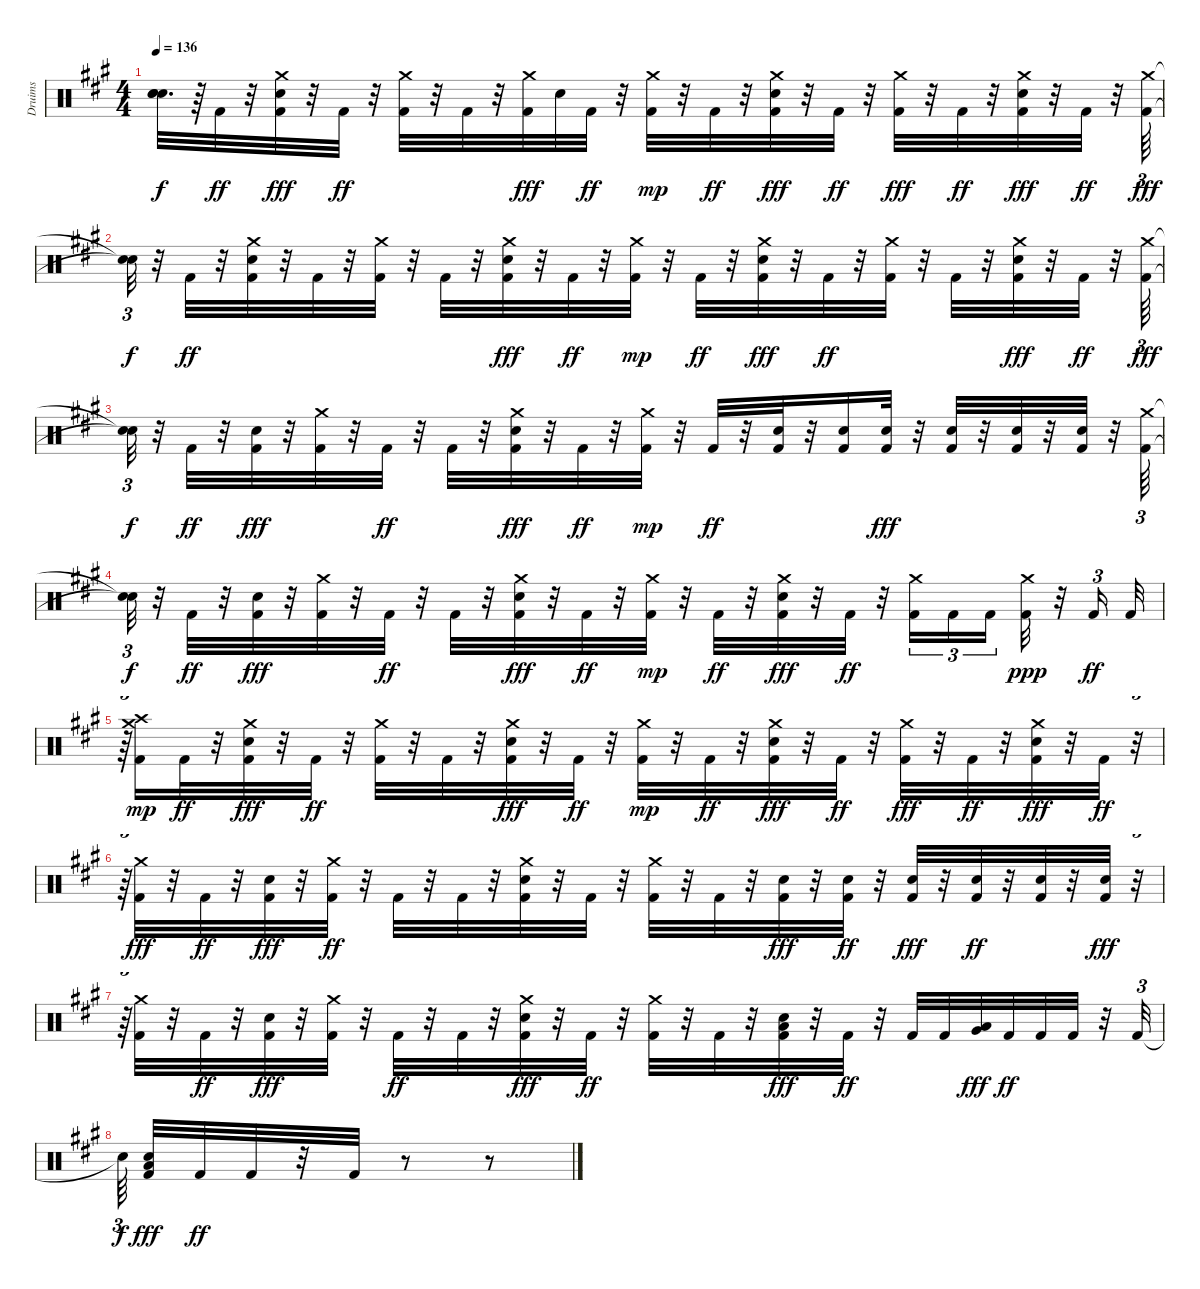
\track ("Druims" "Druims") {instrument percussion}
\staff {score}
\articulation defaults
\ts (4 4)
\tempo 136
\clef neutral
\ks f#minor
("Snare (hit)"{t} "Snare (hit)"{t} "Snare (hit)"{t}).32{d dy f} r.64 "Kick (hit) 2".32{dy ff} r.32 ("Kick (hit) 2" "Crash medium (hit)" "Snare (hit) 2").32{dy fff} r.32 "Kick (hit) 2".32{dy ff} r.32 ("Crash medium (hit)" "Kick (hit) 2").32 r.32 "Kick (hit) 2".32 r.32 ("Kick (hit) 2" "Crash medium (hit)").32{dy fff} "Snare (hit) 2".32 "Kick (hit) 2".32{dy ff} r.32 ("Kick (hit) 2" "Crash medium (hit)").32{dy mp} r.32 "Kick (hit) 2".32{dy ff} r.32 ("Kick (hit) 2" "Crash medium (hit)" "Snare (hit) 2").32{dy fff} r.32 "Kick (hit) 2".32{dy ff} r.32 ("Kick (hit) 2" "Crash medium (hit)").32{dy fff} r.32 "Kick (hit) 2".32{dy ff} r.32 ("Kick (hit) 2" "Crash medium (hit)" "Snare (hit) 2").32{dy fff} r.32 "Kick (hit) 2".32{dy ff} r.32 ("Kick (hit) 2" "Crash medium (hit)").64{tu (3 2) dy fff} |
("Snare (hit)"{t} "Snare (hit)"{t}).32{tu (3 2) dy f} r.32 "Kick (hit) 2".32{dy ff} r.32 ("Kick (hit) 2" "Snare (hit) 2" "Crash medium (hit)").32 r.32 "Kick (hit) 2".32 r.32 ("Crash medium (hit)" "Kick (hit) 2").32 r.32 "Kick (hit) 2".32 r.32 ("Kick (hit) 2" "Crash medium (hit)" "Snare (hit) 2").32{dy fff} r.32 "Kick (hit) 2".32{dy ff} r.32 ("Kick (hit) 2" "Crash medium (hit)").32{dy mp} r.32 "Kick (hit) 2".32{dy ff} r.32 ("Kick (hit) 2" "Snare (hit) 2" "Crash medium (hit)").32{dy fff} r.32 "Kick (hit) 2".32{dy ff} r.32 ("Crash medium (hit)" "Kick (hit) 2").32 r.32 "Kick (hit) 2".32 r.32 ("Crash medium (hit)" "Kick (hit) 2" "Snare (hit) 2").32{dy fff} r.32 "Kick (hit) 2".32{dy ff} r.32 ("Crash medium (hit)" "Kick (hit) 2").64{tu (3 2) dy fff} |
("Snare (hit)"{t} "Snare (hit)"{t}).32{tu (3 2) dy f} r.32 "Kick (hit) 2".32{dy ff} r.32 ("Kick (hit) 2" "Snare (hit) 2").32{dy fff} r.32 ("Kick (hit) 2" "Crash medium (hit)").32 r.32 "Kick (hit) 2".32{dy ff} r.32 "Kick (hit) 2".32 r.32 ("Kick (hit) 2" "Snare (hit) 2" "Crash medium (hit)").32{dy fff} r.32 "Kick (hit) 2".32{dy ff} r.32 ("Kick (hit) 2" "Crash medium (hit)").32{dy mp} r.32 "Kick (hit) 2".32{dy ff} r.32 ("Snare (hit) 2" "Kick (hit) 2").32 r.32 ("Snare (hit) 2" "Kick (hit) 2").16 ("Kick (hit) 2" "Snare (hit) 2").32{dy fff} r.32 ("Kick (hit) 2" "Snare (hit) 2").32 r.32 ("Kick (hit) 2" "Snare (hit) 2").32 r.32 ("Kick (hit) 2" "Snare (hit) 2").32 r.32 ("Kick (hit) 2" "Crash medium (hit)").64{tu (3 2)} |
("Snare (hit)"{t} "Snare (hit)"{t}).32{tu (3 2) dy f} r.32 "Kick (hit) 2".32{dy ff} r.32 ("Kick (hit) 2" "Snare (hit) 2").32{dy fff} r.32 ("Kick (hit) 2" "Crash medium (hit)").32 r.32 "Kick (hit) 2".32{dy ff} r.32 "Kick (hit) 2".32 r.32 ("Kick (hit) 2" "Crash medium (hit)" "Snare (hit) 2").32{dy fff} r.32 "Kick (hit) 2".32{dy ff} r.32 ("Kick (hit) 2" "Crash medium (hit)").32{dy mp} r.32 "Kick (hit) 2".32{dy ff} r.32 ("Kick (hit) 2" "Snare (hit) 2" "Crash medium (hit)").32{dy fff} r.32 "Kick (hit) 2".32{dy ff} r.32 ("Crash medium (hit)" "Kick (hit) 2").16{tu (3 2)} "Kick (hit) 2".16{tu (3 2)} "Kick (hit) 2".16{tu (3 2) beam splitsecondary} ("Kick (hit) 2" "Crash medium (hit)").32{dy ppp} r.32 "Kick (hit) 2".16{tu (3 2) dy ff} "Kick (hit) 2".32 |
r.64{tu (3 2)} ("Kick (hit) 2" "Crash high (hit)" "Crash medium (hit)").16{dy mp} "Kick (hit) 2".32{dy ff} r.32 ("Kick (hit) 2" "Crash medium (hit)" "Snare (hit) 2").32{dy fff} r.32 "Kick (hit) 2".32{dy ff} r.32 ("Crash medium (hit)" "Kick (hit) 2").32 r.32 "Kick (hit) 2".32 r.32 ("Kick (hit) 2" "Crash medium (hit)" "Snare (hit) 2").32{dy fff} r.32 "Kick (hit) 2".32{dy ff} r.32 ("Kick (hit) 2" "Crash medium (hit)").32{dy mp} r.32 "Kick (hit) 2".32{dy ff} r.32 ("Crash medium (hit)" "Kick (hit) 2" "Snare (hit) 2").32{dy fff} r.32 "Kick (hit) 2".32{dy ff} r.32 ("Kick (hit) 2" "Crash medium (hit)").32{dy fff} r.32 "Kick (hit) 2".32{dy ff} r.32 ("Kick (hit) 2" "Crash medium (hit)" "Snare (hit) 2").32{dy fff} r.32 "Kick (hit) 2".32{dy ff} r.32{tu (3 2)} |
r.64{tu (3 2)} ("Kick (hit) 2" "Crash medium (hit)").32{dy fff} r.32 "Kick (hit) 2".32{dy ff} r.32 ("Kick (hit) 2" "Snare (hit) 2").32{dy fff} r.32 ("Crash medium (hit)" "Kick (hit) 2").32{dy ff} r.32 "Kick (hit) 2".32 r.32 "Kick (hit) 2".32 r.32 ("Snare (hit) 2" "Crash medium (hit)" "Kick (hit) 2").32 r.32 "Kick (hit) 2".32 r.32 ("Crash medium (hit)" "Kick (hit) 2").32 r.32 "Kick (hit) 2".32 r.32 ("Kick (hit) 2" "Snare (hit) 2").32{dy fff} r.32 ("Snare (hit) 2" "Kick (hit) 2").32{dy ff} r.32 ("Kick (hit) 2" "Snare (hit) 2").32{dy fff} r.32 ("Snare (hit) 2" "Kick (hit) 2").32{dy ff} r.32 ("Snare (hit) 2" "Kick (hit) 2").32 r.32 ("Kick (hit) 2" "Snare (hit) 2").32{dy fff} r.32{tu (3 2)} |
r.64{tu (3 2)} ("Kick (hit) 2" "Crash medium (hit)").32 r.32 "Kick (hit) 2".32{dy ff} r.32 ("Kick (hit) 2" "Snare (hit) 2").32{dy fff} r.32 ("Kick (hit) 2" "Crash medium (hit)").32 r.32 "Kick (hit) 2".32{dy ff} r.32 "Kick (hit) 2".32 r.32 ("Snare (hit) 2" "Kick (hit) 2" "Crash medium (hit)").32{dy fff} r.32 "Kick (hit) 2".32{dy ff} r.32 ("Crash medium (hit)" "Kick (hit) 2").32 r.32 "Kick (hit) 2".32 r.32 ("Kick (hit) 2" "Hand Clap (hit)" "Low Floor Tom (hit)").32{dy fff} r.32 "Kick (hit) 2".32{dy ff} r.32 "Kick (hit) 2".32 "Kick (hit) 2".32 ("Low Floor Tom (hit)" "Very Low Tom (hit)").32{dy fff} "Kick (hit) 2".32{dy ff} "Kick (hit) 2".32 "Kick (hit) 2".32 r.32 "Kick (hit) 2".32{tu (3 2)} |
"Snare (hit)"{t}.64{tu (3 2) dy f beam splitsecondary} ("Kick (hit) 2" "Hand Clap (hit)" "Low Floor Tom (hit)").32{dy fff} "Kick (hit) 2".32{dy ff} "Kick (hit) 2".32 r.32 "Kick (hit) 2".32 r.8 r.8
